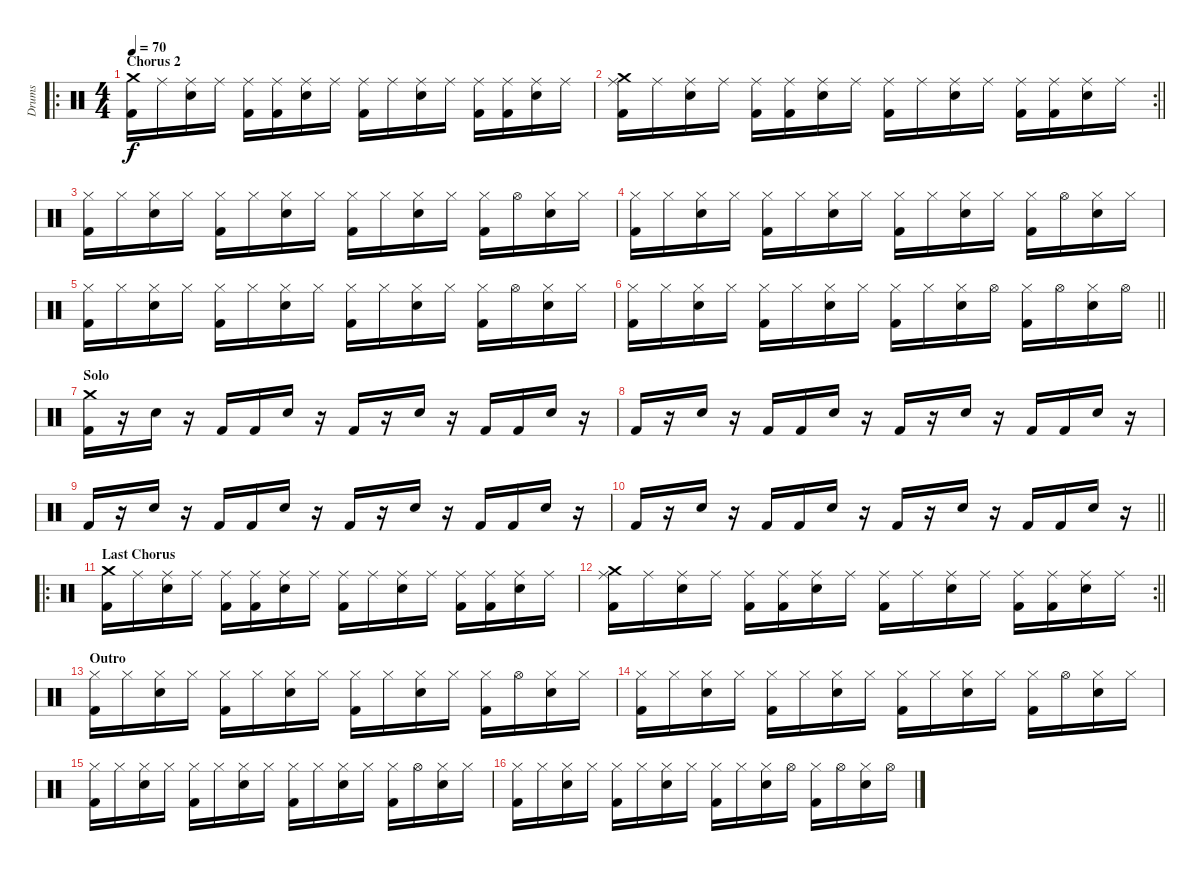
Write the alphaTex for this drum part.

\track ("Drums" "Drums") {instrument percussion}
\staff {score}
\articulation defaults
\ro
\ts (4 4)
\section ("" "Chorus 2")
\tempo 70
\clef neutral
\ks c
("Kick (hit) 2" "Crash medium (hit)").16{dy f} "Ride (middle)".16 ("Snare (hit) 2" "Ride (middle)").16 "Ride (middle)".16 ("Kick (hit) 2" "Ride (middle)").16 ("Kick (hit) 2" "Ride (middle)").16 ("Snare (hit) 2" "Ride (middle)").16 "Ride (middle)".16 ("Kick (hit) 2" "Ride (middle)").16 "Ride (middle)".16 ("Snare (hit) 2" "Ride (middle)").16 "Ride (middle)".16 ("Kick (hit) 2" "Ride (middle)").16 ("Kick (hit) 2" "Ride (middle)").16 ("Snare (hit) 2" "Ride (middle)").16 "Ride (middle)".16 |
\rc 2
\barLineRight lightlight
("Kick (hit) 2" "Crash medium (hit)" "Ride (middle)").16 "Ride (middle)".16 ("Snare (hit) 2" "Ride (middle)").16 "Ride (middle)".16 ("Kick (hit) 2" "Ride (middle)").16 ("Kick (hit) 2" "Ride (middle)").16 ("Snare (hit) 2" "Ride (middle)").16 "Ride (middle)".16 ("Kick (hit) 2" "Ride (middle)").16 "Ride (middle)".16 ("Snare (hit) 2" "Ride (middle)").16 "Ride (middle)".16 ("Kick (hit) 2" "Ride (middle)").16 ("Kick (hit) 2" "Ride (middle)").16 ("Snare (hit) 2" "Ride (middle)").16 "Ride (middle)".16 |
\section ("" "")
("Kick (hit) 2" "Hi-Hat (closed)").16 "Hi-Hat (closed)".16 ("Snare (hit) 2" "Hi-Hat (closed)").16 "Hi-Hat (closed)".16 ("Kick (hit) 2" "Hi-Hat (closed)").16 "Hi-Hat (closed)".16 ("Snare (hit) 2" "Hi-Hat (closed)").16 "Hi-Hat (closed)".16 ("Kick (hit) 2" "Hi-Hat (closed)").16 "Hi-Hat (closed)".16 ("Snare (hit) 2" "Hi-Hat (closed)").16 "Hi-Hat (closed)".16 ("Kick (hit) 2" "Hi-Hat (closed)").16 "Hi-Hat (open)".16 ("Snare (hit) 2" "Hi-Hat (closed)").16 "Hi-Hat (closed)".16 |
("Kick (hit) 2" "Hi-Hat (closed)").16 "Hi-Hat (closed)".16 ("Snare (hit) 2" "Hi-Hat (closed)").16 "Hi-Hat (closed)".16 ("Kick (hit) 2" "Hi-Hat (closed)").16 "Hi-Hat (closed)".16 ("Snare (hit) 2" "Hi-Hat (closed)").16 "Hi-Hat (closed)".16 ("Kick (hit) 2" "Hi-Hat (closed)").16 "Hi-Hat (closed)".16 ("Snare (hit) 2" "Hi-Hat (closed)").16 "Hi-Hat (closed)".16 ("Kick (hit) 2" "Hi-Hat (closed)").16 "Hi-Hat (open)".16 ("Snare (hit) 2" "Hi-Hat (closed)").16 "Hi-Hat (closed)".16 |
("Kick (hit) 2" "Hi-Hat (closed)").16 "Hi-Hat (closed)".16 ("Snare (hit) 2" "Hi-Hat (closed)").16 "Hi-Hat (closed)".16 ("Kick (hit) 2" "Hi-Hat (closed)").16 "Hi-Hat (closed)".16 ("Snare (hit) 2" "Hi-Hat (closed)").16 "Hi-Hat (closed)".16 ("Kick (hit) 2" "Hi-Hat (closed)").16 "Hi-Hat (closed)".16 ("Snare (hit) 2" "Hi-Hat (closed)").16 "Hi-Hat (closed)".16 ("Kick (hit) 2" "Hi-Hat (closed)").16 "Hi-Hat (open)".16 ("Snare (hit) 2" "Hi-Hat (closed)").16 "Hi-Hat (closed)".16 |
\barLineRight lightlight
("Kick (hit) 2" "Hi-Hat (closed)").16 "Hi-Hat (closed)".16 ("Snare (hit) 2" "Hi-Hat (closed)").16 "Hi-Hat (closed)".16 ("Kick (hit) 2" "Hi-Hat (closed)").16 "Hi-Hat (closed)".16 ("Snare (hit) 2" "Hi-Hat (closed)").16 "Hi-Hat (closed)".16 ("Kick (hit) 2" "Hi-Hat (closed)").16 "Hi-Hat (closed)".16 ("Snare (hit) 2" "Hi-Hat (closed)").16 "Hi-Hat (open)".16 ("Kick (hit) 2" "Hi-Hat (closed)").16 "Hi-Hat (open)".16 ("Snare (hit) 2" "Hi-Hat (closed)").16 "Hi-Hat (open)".16 |
\section ("" "Solo")
("Kick (hit) 2" "Crash medium (hit)").16 r.16 "Snare (hit) 2".16 r.16 "Kick (hit) 2".16 "Kick (hit) 2".16 "Snare (hit) 2".16 r.16 "Kick (hit) 2".16 r.16 "Snare (hit) 2".16 r.16 "Kick (hit) 2".16 "Kick (hit) 2".16 "Snare (hit) 2".16 r.16 |
"Kick (hit) 2".16 r.16 "Snare (hit) 2".16 r.16 "Kick (hit) 2".16 "Kick (hit) 2".16 "Snare (hit) 2".16 r.16 "Kick (hit) 2".16 r.16 "Snare (hit) 2".16 r.16 "Kick (hit) 2".16 "Kick (hit) 2".16 "Snare (hit) 2".16 r.16 |
"Kick (hit) 2".16 r.16 "Snare (hit) 2".16 r.16 "Kick (hit) 2".16 "Kick (hit) 2".16 "Snare (hit) 2".16 r.16 "Kick (hit) 2".16 r.16 "Snare (hit) 2".16 r.16 "Kick (hit) 2".16 "Kick (hit) 2".16 "Snare (hit) 2".16 r.16 |
\barLineRight lightlight "Kick (hit) 2".16
r.16 "Snare (hit) 2".16 r.16 "Kick (hit) 2".16 "Kick (hit) 2".16 "Snare (hit) 2".16 r.16 "Kick (hit) 2".16 r.16 "Snare (hit) 2".16 r.16 "Kick (hit) 2".16 "Kick (hit) 2".16 "Snare (hit) 2".16 r.16 |
\ro
\section ("" "Last Chorus")
("Kick (hit) 2" "Crash medium (hit)").16 "Ride (middle)".16 ("Snare (hit) 2" "Ride (middle)").16 "Ride (middle)".16 ("Kick (hit) 2" "Ride (middle)").16 ("Kick (hit) 2" "Ride (middle)").16 ("Snare (hit) 2" "Ride (middle)").16 "Ride (middle)".16 ("Kick (hit) 2" "Ride (middle)").16 "Ride (middle)".16 ("Snare (hit) 2" "Ride (middle)").16 "Ride (middle)".16 ("Kick (hit) 2" "Ride (middle)").16 ("Kick (hit) 2" "Ride (middle)").16 ("Snare (hit) 2" "Ride (middle)").16 "Ride (middle)".16 |
\rc 2
\barLineRight lightlight
("Kick (hit) 2" "Crash medium (hit)" "Ride (middle)").16 "Ride (middle)".16 ("Snare (hit) 2" "Ride (middle)").16 "Ride (middle)".16 ("Kick (hit) 2" "Ride (middle)").16 ("Kick (hit) 2" "Ride (middle)").16 ("Snare (hit) 2" "Ride (middle)").16 "Ride (middle)".16 ("Kick (hit) 2" "Ride (middle)").16 "Ride (middle)".16 ("Snare (hit) 2" "Ride (middle)").16 "Ride (middle)".16 ("Kick (hit) 2" "Ride (middle)").16 ("Kick (hit) 2" "Ride (middle)").16 ("Snare (hit) 2" "Ride (middle)").16 "Ride (middle)".16 |
\section ("" "Outro")
("Kick (hit) 2" "Hi-Hat (closed)").16 "Hi-Hat (closed)".16 ("Snare (hit) 2" "Hi-Hat (closed)").16 "Hi-Hat (closed)".16 ("Kick (hit) 2" "Hi-Hat (closed)").16 "Hi-Hat (closed)".16 ("Snare (hit) 2" "Hi-Hat (closed)").16 "Hi-Hat (closed)".16 ("Kick (hit) 2" "Hi-Hat (closed)").16 "Hi-Hat (closed)".16 ("Snare (hit) 2" "Hi-Hat (closed)").16 "Hi-Hat (closed)".16 ("Kick (hit) 2" "Hi-Hat (closed)").16 "Hi-Hat (open)".16 ("Snare (hit) 2" "Hi-Hat (closed)").16 "Hi-Hat (closed)".16 |
("Kick (hit) 2" "Hi-Hat (closed)").16 "Hi-Hat (closed)".16 ("Snare (hit) 2" "Hi-Hat (closed)").16 "Hi-Hat (closed)".16 ("Kick (hit) 2" "Hi-Hat (closed)").16 "Hi-Hat (closed)".16 ("Snare (hit) 2" "Hi-Hat (closed)").16 "Hi-Hat (closed)".16 ("Kick (hit) 2" "Hi-Hat (closed)").16 "Hi-Hat (closed)".16 ("Snare (hit) 2" "Hi-Hat (closed)").16 "Hi-Hat (closed)".16 ("Kick (hit) 2" "Hi-Hat (closed)").16 "Hi-Hat (open)".16 ("Snare (hit) 2" "Hi-Hat (closed)").16 "Hi-Hat (closed)".16 |
("Kick (hit) 2" "Hi-Hat (closed)").16 "Hi-Hat (closed)".16 ("Snare (hit) 2" "Hi-Hat (closed)").16 "Hi-Hat (closed)".16 ("Kick (hit) 2" "Hi-Hat (closed)").16 "Hi-Hat (closed)".16 ("Snare (hit) 2" "Hi-Hat (closed)").16 "Hi-Hat (closed)".16 ("Kick (hit) 2" "Hi-Hat (closed)").16 "Hi-Hat (closed)".16 ("Snare (hit) 2" "Hi-Hat (closed)").16 "Hi-Hat (closed)".16 ("Kick (hit) 2" "Hi-Hat (closed)").16 "Hi-Hat (open)".16 ("Snare (hit) 2" "Hi-Hat (closed)").16 "Hi-Hat (closed)".16 |
("Kick (hit) 2" "Hi-Hat (closed)").16 "Hi-Hat (closed)".16 ("Snare (hit) 2" "Hi-Hat (closed)").16 "Hi-Hat (closed)".16 ("Kick (hit) 2" "Hi-Hat (closed)").16 "Hi-Hat (closed)".16 ("Snare (hit) 2" "Hi-Hat (closed)").16 "Hi-Hat (closed)".16 ("Kick (hit) 2" "Hi-Hat (closed)").16 "Hi-Hat (closed)".16 ("Snare (hit) 2" "Hi-Hat (closed)").16 "Hi-Hat (open)".16 ("Kick (hit) 2" "Hi-Hat (closed)").16 "Hi-Hat (open)".16 ("Snare (hit) 2" "Hi-Hat (closed)").16 "Hi-Hat (open)".16
